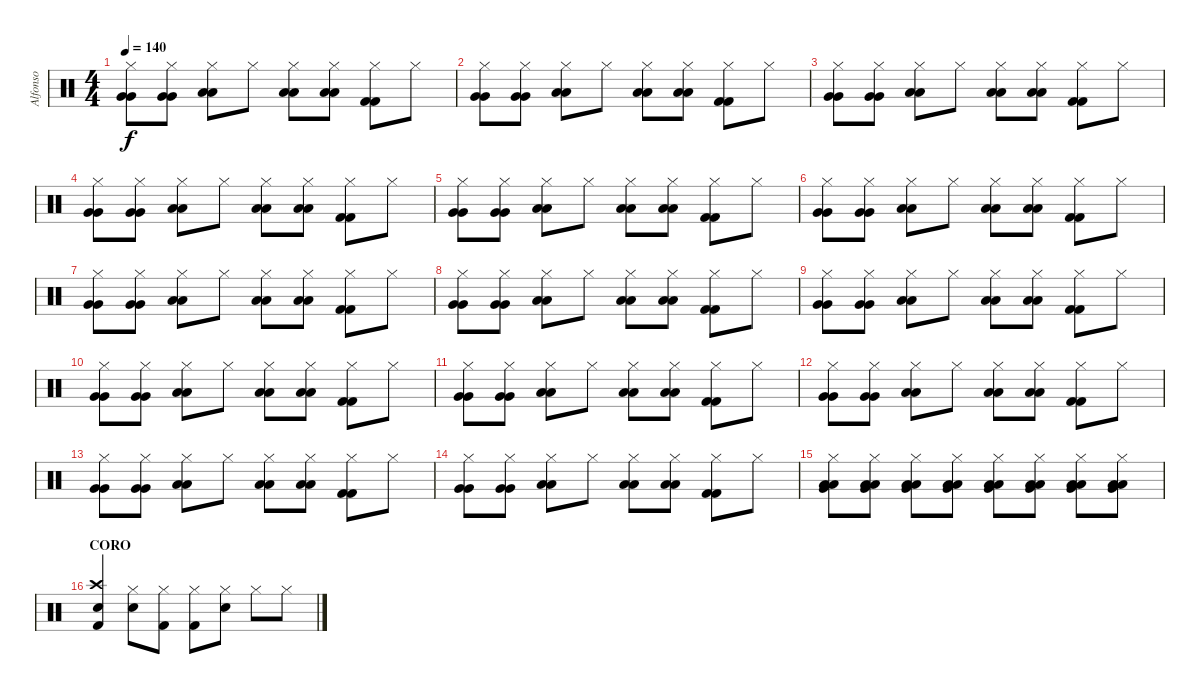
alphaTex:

\track ("Alfonso" "Alfonso") {instrument percussion}
\staff {score}
\articulation defaults
\ts (4 4)
\tempo 140
\clef neutral
\ks c
("Hi-Hat (closed)" "Very Low Tom (hit)" "Very Low Tom (hit)").8{dy f} ("Hi-Hat (closed)" "Very Low Tom (hit)" "Very Low Tom (hit)").8 ("Hi-Hat (closed)" "Low Floor Tom (hit)" "Low Floor Tom (hit)").8 "Hi-Hat (closed)".8 ("Hi-Hat (closed)" "Low Floor Tom (hit)" "Low Floor Tom (hit)").8 ("Hi-Hat (closed)" "Low Floor Tom (hit)" "Low Floor Tom (hit)").8 ("Hi-Hat (closed)" "Kick (hit) 2" "Kick (hit) 2").8 "Hi-Hat (closed)".8 |
("Hi-Hat (closed)" "Very Low Tom (hit)" "Very Low Tom (hit)").8 ("Hi-Hat (closed)" "Very Low Tom (hit)" "Very Low Tom (hit)").8 ("Hi-Hat (closed)" "Low Floor Tom (hit)" "Low Floor Tom (hit)").8 "Hi-Hat (closed)".8 ("Hi-Hat (closed)" "Low Floor Tom (hit)" "Low Floor Tom (hit)").8 ("Hi-Hat (closed)" "Low Floor Tom (hit)" "Low Floor Tom (hit)").8 ("Hi-Hat (closed)" "Kick (hit) 2" "Kick (hit) 2").8 "Hi-Hat (closed)".8 |
("Hi-Hat (closed)" "Very Low Tom (hit)" "Very Low Tom (hit)").8 ("Hi-Hat (closed)" "Very Low Tom (hit)" "Very Low Tom (hit)").8 ("Hi-Hat (closed)" "Low Floor Tom (hit)" "Low Floor Tom (hit)").8 "Hi-Hat (closed)".8 ("Hi-Hat (closed)" "Low Floor Tom (hit)" "Low Floor Tom (hit)").8 ("Hi-Hat (closed)" "Low Floor Tom (hit)" "Low Floor Tom (hit)").8 ("Hi-Hat (closed)" "Kick (hit) 2" "Kick (hit) 2").8 "Hi-Hat (closed)".8 |
("Hi-Hat (closed)" "Very Low Tom (hit)" "Very Low Tom (hit)").8 ("Hi-Hat (closed)" "Very Low Tom (hit)" "Very Low Tom (hit)").8 ("Hi-Hat (closed)" "Low Floor Tom (hit)" "Low Floor Tom (hit)").8 "Hi-Hat (closed)".8 ("Hi-Hat (closed)" "Low Floor Tom (hit)" "Low Floor Tom (hit)").8 ("Hi-Hat (closed)" "Low Floor Tom (hit)" "Low Floor Tom (hit)").8 ("Hi-Hat (closed)" "Kick (hit) 2" "Kick (hit) 2").8 "Hi-Hat (closed)".8 |
("Hi-Hat (closed)" "Very Low Tom (hit)" "Very Low Tom (hit)").8 ("Hi-Hat (closed)" "Very Low Tom (hit)" "Very Low Tom (hit)").8 ("Hi-Hat (closed)" "Low Floor Tom (hit)" "Low Floor Tom (hit)").8 "Hi-Hat (closed)".8 ("Hi-Hat (closed)" "Low Floor Tom (hit)" "Low Floor Tom (hit)").8 ("Hi-Hat (closed)" "Low Floor Tom (hit)" "Low Floor Tom (hit)").8 ("Hi-Hat (closed)" "Kick (hit) 2" "Kick (hit) 2").8 "Hi-Hat (closed)".8 |
("Hi-Hat (closed)" "Very Low Tom (hit)" "Very Low Tom (hit)").8 ("Hi-Hat (closed)" "Very Low Tom (hit)" "Very Low Tom (hit)").8 ("Hi-Hat (closed)" "Low Floor Tom (hit)" "Low Floor Tom (hit)").8 "Hi-Hat (closed)".8 ("Hi-Hat (closed)" "Low Floor Tom (hit)" "Low Floor Tom (hit)").8 ("Hi-Hat (closed)" "Low Floor Tom (hit)" "Low Floor Tom (hit)").8 ("Hi-Hat (closed)" "Kick (hit) 2" "Kick (hit) 2").8 "Hi-Hat (closed)".8 |
("Hi-Hat (closed)" "Very Low Tom (hit)" "Very Low Tom (hit)").8 ("Hi-Hat (closed)" "Very Low Tom (hit)" "Very Low Tom (hit)").8 ("Hi-Hat (closed)" "Low Floor Tom (hit)" "Low Floor Tom (hit)").8 "Hi-Hat (closed)".8 ("Hi-Hat (closed)" "Low Floor Tom (hit)" "Low Floor Tom (hit)").8 ("Hi-Hat (closed)" "Low Floor Tom (hit)" "Low Floor Tom (hit)").8 ("Hi-Hat (closed)" "Kick (hit) 2" "Kick (hit) 2").8 "Hi-Hat (closed)".8 |
("Hi-Hat (closed)" "Very Low Tom (hit)" "Very Low Tom (hit)").8 ("Hi-Hat (closed)" "Very Low Tom (hit)" "Very Low Tom (hit)").8 ("Hi-Hat (closed)" "Low Floor Tom (hit)" "Low Floor Tom (hit)").8 "Hi-Hat (closed)".8 ("Hi-Hat (closed)" "Low Floor Tom (hit)" "Low Floor Tom (hit)").8 ("Hi-Hat (closed)" "Low Floor Tom (hit)" "Low Floor Tom (hit)").8 ("Hi-Hat (closed)" "Kick (hit) 2" "Kick (hit) 2").8 "Hi-Hat (closed)".8 |
("Hi-Hat (closed)" "Very Low Tom (hit)" "Very Low Tom (hit)").8 ("Hi-Hat (closed)" "Very Low Tom (hit)" "Very Low Tom (hit)").8 ("Hi-Hat (closed)" "Low Floor Tom (hit)" "Low Floor Tom (hit)").8 "Hi-Hat (closed)".8 ("Hi-Hat (closed)" "Low Floor Tom (hit)" "Low Floor Tom (hit)").8 ("Hi-Hat (closed)" "Low Floor Tom (hit)" "Low Floor Tom (hit)").8 ("Hi-Hat (closed)" "Kick (hit) 2" "Kick (hit) 2").8 "Hi-Hat (closed)".8 |
("Hi-Hat (closed)" "Very Low Tom (hit)" "Very Low Tom (hit)").8 ("Hi-Hat (closed)" "Very Low Tom (hit)" "Very Low Tom (hit)").8 ("Hi-Hat (closed)" "Low Floor Tom (hit)" "Low Floor Tom (hit)").8 "Hi-Hat (closed)".8 ("Hi-Hat (closed)" "Low Floor Tom (hit)" "Low Floor Tom (hit)").8 ("Hi-Hat (closed)" "Low Floor Tom (hit)" "Low Floor Tom (hit)").8 ("Hi-Hat (closed)" "Kick (hit) 2" "Kick (hit) 2").8 "Hi-Hat (closed)".8 |
("Hi-Hat (closed)" "Very Low Tom (hit)" "Very Low Tom (hit)").8 ("Hi-Hat (closed)" "Very Low Tom (hit)" "Very Low Tom (hit)").8 ("Hi-Hat (closed)" "Low Floor Tom (hit)" "Low Floor Tom (hit)").8 "Hi-Hat (closed)".8 ("Hi-Hat (closed)" "Low Floor Tom (hit)" "Low Floor Tom (hit)").8 ("Hi-Hat (closed)" "Low Floor Tom (hit)" "Low Floor Tom (hit)").8 ("Hi-Hat (closed)" "Kick (hit) 2" "Kick (hit) 2").8 "Hi-Hat (closed)".8 |
("Hi-Hat (closed)" "Very Low Tom (hit)" "Very Low Tom (hit)").8 ("Hi-Hat (closed)" "Very Low Tom (hit)" "Very Low Tom (hit)").8 ("Hi-Hat (closed)" "Low Floor Tom (hit)" "Low Floor Tom (hit)").8 "Hi-Hat (closed)".8 ("Hi-Hat (closed)" "Low Floor Tom (hit)" "Low Floor Tom (hit)").8 ("Hi-Hat (closed)" "Low Floor Tom (hit)" "Low Floor Tom (hit)").8 ("Hi-Hat (closed)" "Kick (hit) 2" "Kick (hit) 2").8 "Hi-Hat (closed)".8 |
("Hi-Hat (closed)" "Very Low Tom (hit)" "Very Low Tom (hit)").8 ("Hi-Hat (closed)" "Very Low Tom (hit)" "Very Low Tom (hit)").8 ("Hi-Hat (closed)" "Low Floor Tom (hit)" "Low Floor Tom (hit)").8 "Hi-Hat (closed)".8 ("Hi-Hat (closed)" "Low Floor Tom (hit)" "Low Floor Tom (hit)").8 ("Hi-Hat (closed)" "Low Floor Tom (hit)" "Low Floor Tom (hit)").8 ("Hi-Hat (closed)" "Kick (hit) 2" "Kick (hit) 2").8 "Hi-Hat (closed)".8 |
("Hi-Hat (closed)" "Very Low Tom (hit)" "Very Low Tom (hit)").8 ("Hi-Hat (closed)" "Very Low Tom (hit)" "Very Low Tom (hit)").8 ("Hi-Hat (closed)" "Low Floor Tom (hit)" "Low Floor Tom (hit)").8 "Hi-Hat (closed)".8 ("Hi-Hat (closed)" "Low Floor Tom (hit)" "Low Floor Tom (hit)").8 ("Hi-Hat (closed)" "Low Floor Tom (hit)" "Low Floor Tom (hit)").8 ("Hi-Hat (closed)" "Kick (hit) 2" "Kick (hit) 2").8 "Hi-Hat (closed)".8 |
("Hi-Hat (closed)" "Low Floor Tom (hit)" "Low Floor Tom (hit)" "Very Low Tom (hit)").8 ("Hi-Hat (closed)" "Low Floor Tom (hit)" "Low Floor Tom (hit)" "Very Low Tom (hit)").8 ("Hi-Hat (closed)" "Low Floor Tom (hit)" "Low Floor Tom (hit)" "Very Low Tom (hit)").8 ("Hi-Hat (closed)" "Low Floor Tom (hit)" "Low Floor Tom (hit)" "Very Low Tom (hit)").8 ("Hi-Hat (closed)" "Low Floor Tom (hit)" "Low Floor Tom (hit)" "Very Low Tom (hit)").8 ("Hi-Hat (closed)" "Low Floor Tom (hit)" "Low Floor Tom (hit)" "Very Low Tom (hit)").8 ("Hi-Hat (closed)" "Low Floor Tom (hit)" "Low Floor Tom (hit)" "Very Low Tom (hit)").8 ("Hi-Hat (closed)" "Low Floor Tom (hit)" "Low Floor Tom (hit)" "Very Low Tom (hit)").8 |
\section ("" "CORO")
("Kick (hit) 2" "Crash high (hit)" "Electric Snare (hit)").4 ("Hi-Hat (closed)" "Electric Snare (hit)").8 ("Hi-Hat (closed)" "Kick (hit) 2").8 ("Hi-Hat (closed)" "Kick (hit) 2").8 ("Hi-Hat (closed)" "Electric Snare (hit)").8 "Hi-Hat (closed)".8 "Hi-Hat (closed)".8
